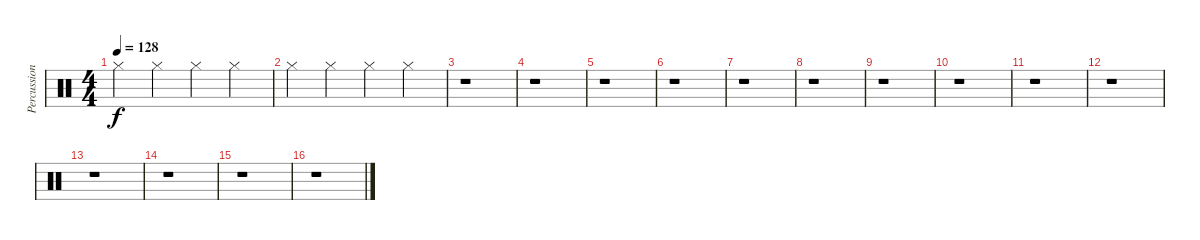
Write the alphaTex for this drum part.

\track ("Percussions" "Percussion") {instrument percussion}
\staff {score}
\articulation defaults
\ts (4 4)
\tempo 128
\clef neutral
\ks c "Hi-Hat (closed)".4{dy f} "Hi-Hat (closed)".4 "Hi-Hat (closed)".4 "Hi-Hat (closed)".4
|
"Hi-Hat (closed)".4 "Hi-Hat (closed)".4 "Hi-Hat (closed)".4 "Hi-Hat (closed)".4 |
r.1 |
r.1 |
r.1 |
r.1 |
r.1 |
r.1 |
r.1 |
r.1 |
r.1 |
r.1 |
r.1 |
r.1 |
r.1 |
r.1
